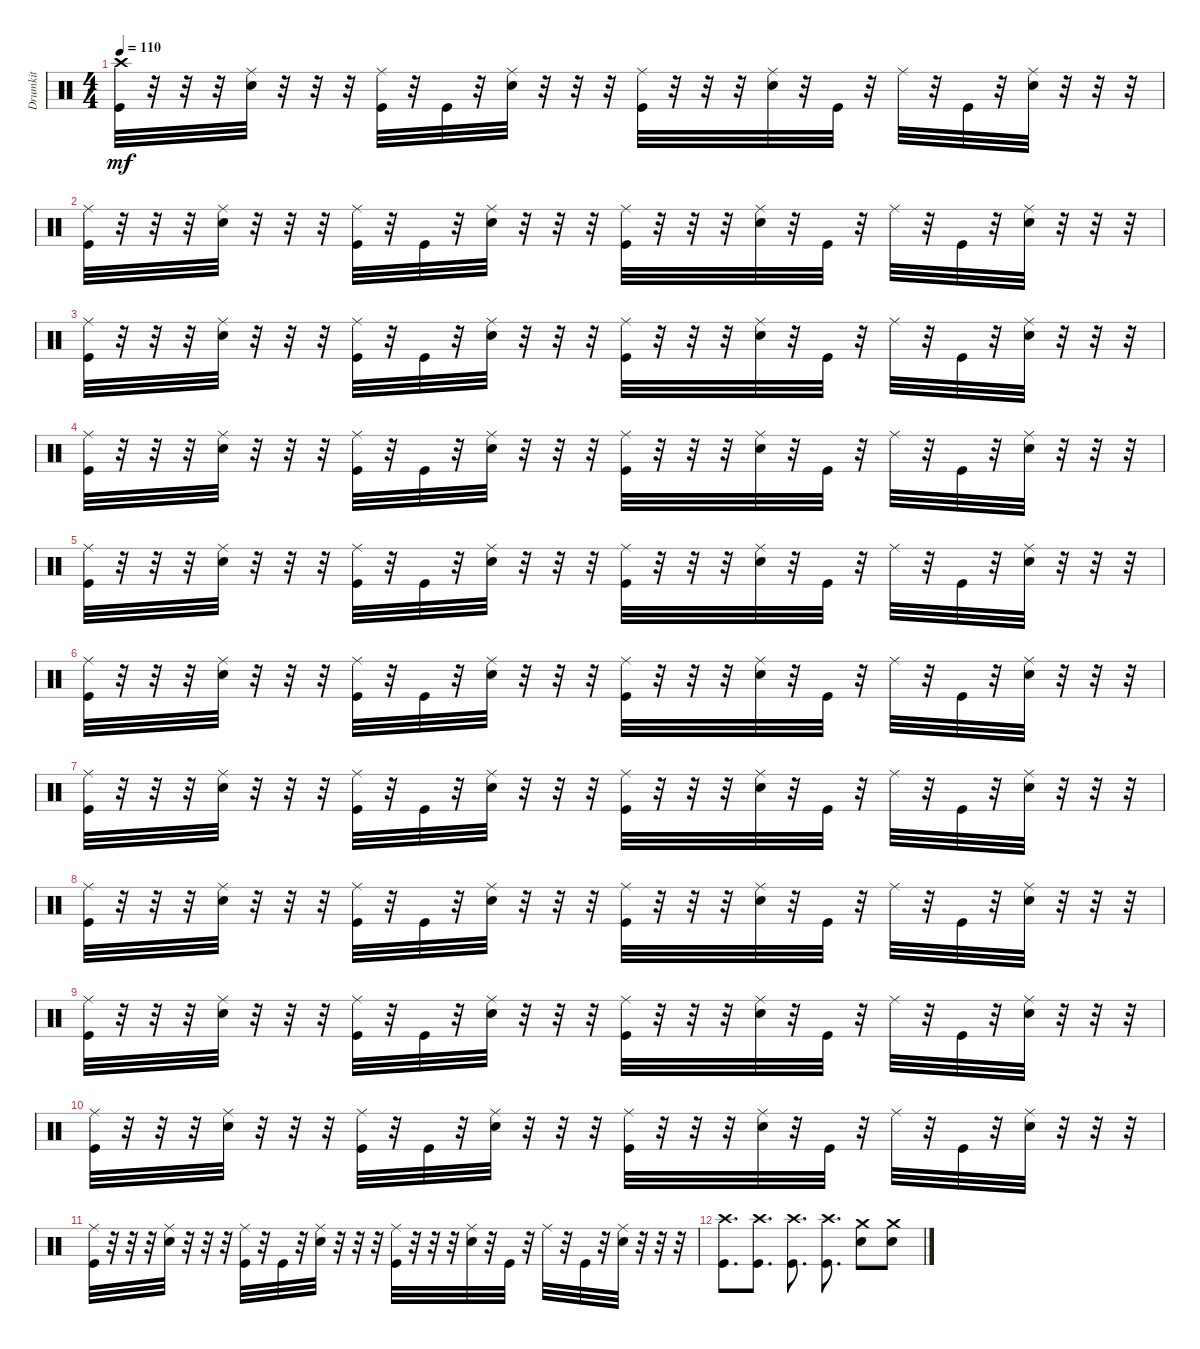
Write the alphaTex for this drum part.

\track ("Drumkit" "Drumkit") {instrument percussion}
\staff {score}
\articulation defaults
\ts (4 4)
\tempo 110
\clef neutral
\ks c
("Kick (hit)" "Crash high (hit)").32{dy mf} r.32 r.32 r.32 ("Snare (hit) 2" "Ride (middle)").32 r.32 r.32 r.32 ("Kick (hit)" "Ride (middle)").32 r.32 "Kick (hit)".32 r.32 ("Snare (hit) 2" "Ride (middle)").32 r.32 r.32 r.32 ("Kick (hit)" "Ride (middle)").32 r.32 r.32 r.32 ("Ride (middle)" "Snare (hit) 2").32 r.32 "Kick (hit)".32 r.32 "Ride (middle)".32 r.32 "Kick (hit)".32 r.32 ("Ride (middle)" "Snare (hit) 2").32 r.32 r.32 r.32 |
("Kick (hit)" "Ride (middle)").32 r.32 r.32 r.32 ("Snare (hit) 2" "Ride (middle)").32 r.32 r.32 r.32 ("Kick (hit)" "Ride (middle)").32 r.32 "Kick (hit)".32 r.32 ("Snare (hit) 2" "Ride (middle)").32 r.32 r.32 r.32 ("Kick (hit)" "Ride (middle)").32 r.32 r.32 r.32 ("Ride (middle)" "Snare (hit) 2").32 r.32 "Kick (hit)".32 r.32 "Ride (middle)".32 r.32 "Kick (hit)".32 r.32 ("Ride (middle)" "Snare (hit) 2").32 r.32 r.32 r.32 |
("Kick (hit)" "Ride (middle)").32 r.32 r.32 r.32 ("Snare (hit) 2" "Ride (middle)").32 r.32 r.32 r.32 ("Kick (hit)" "Ride (middle)").32 r.32 "Kick (hit)".32 r.32 ("Snare (hit) 2" "Ride (middle)").32 r.32 r.32 r.32 ("Kick (hit)" "Ride (middle)").32 r.32 r.32 r.32 ("Ride (middle)" "Snare (hit) 2").32 r.32 "Kick (hit)".32 r.32 "Ride (middle)".32 r.32 "Kick (hit)".32 r.32 ("Ride (middle)" "Snare (hit) 2").32 r.32 r.32 r.32 |
("Kick (hit)" "Ride (middle)").32 r.32 r.32 r.32 ("Snare (hit) 2" "Ride (middle)").32 r.32 r.32 r.32 ("Kick (hit)" "Ride (middle)").32 r.32 "Kick (hit)".32 r.32 ("Snare (hit) 2" "Ride (middle)").32 r.32 r.32 r.32 ("Kick (hit)" "Ride (middle)").32 r.32 r.32 r.32 ("Ride (middle)" "Snare (hit) 2").32 r.32 "Kick (hit)".32 r.32 "Ride (middle)".32 r.32 "Kick (hit)".32 r.32 ("Ride (middle)" "Snare (hit) 2").32 r.32 r.32 r.32 |
("Kick (hit)" "Ride (middle)").32 r.32 r.32 r.32 ("Snare (hit) 2" "Ride (middle)").32 r.32 r.32 r.32 ("Kick (hit)" "Ride (middle)").32 r.32 "Kick (hit)".32 r.32 ("Snare (hit) 2" "Ride (middle)").32 r.32 r.32 r.32 ("Kick (hit)" "Ride (middle)").32 r.32 r.32 r.32 ("Ride (middle)" "Snare (hit) 2").32 r.32 "Kick (hit)".32 r.32 "Ride (middle)".32 r.32 "Kick (hit)".32 r.32 ("Ride (middle)" "Snare (hit) 2").32 r.32 r.32 r.32 |
("Kick (hit)" "Ride (middle)").32 r.32 r.32 r.32 ("Snare (hit) 2" "Ride (middle)").32 r.32 r.32 r.32 ("Kick (hit)" "Ride (middle)").32 r.32 "Kick (hit)".32 r.32 ("Snare (hit) 2" "Ride (middle)").32 r.32 r.32 r.32 ("Kick (hit)" "Ride (middle)").32 r.32 r.32 r.32 ("Ride (middle)" "Snare (hit) 2").32 r.32 "Kick (hit)".32 r.32 "Ride (middle)".32 r.32 "Kick (hit)".32 r.32 ("Ride (middle)" "Snare (hit) 2").32 r.32 r.32 r.32 |
("Kick (hit)" "Ride (middle)").32 r.32 r.32 r.32 ("Snare (hit) 2" "Ride (middle)").32 r.32 r.32 r.32 ("Kick (hit)" "Ride (middle)").32 r.32 "Kick (hit)".32 r.32 ("Snare (hit) 2" "Ride (middle)").32 r.32 r.32 r.32 ("Kick (hit)" "Ride (middle)").32 r.32 r.32 r.32 ("Ride (middle)" "Snare (hit) 2").32 r.32 "Kick (hit)".32 r.32 "Ride (middle)".32 r.32 "Kick (hit)".32 r.32 ("Ride (middle)" "Snare (hit) 2").32 r.32 r.32 r.32 |
("Kick (hit)" "Ride (middle)").32 r.32 r.32 r.32 ("Snare (hit) 2" "Ride (middle)").32 r.32 r.32 r.32 ("Kick (hit)" "Ride (middle)").32 r.32 "Kick (hit)".32 r.32 ("Snare (hit) 2" "Ride (middle)").32 r.32 r.32 r.32 ("Kick (hit)" "Ride (middle)").32 r.32 r.32 r.32 ("Ride (middle)" "Snare (hit) 2").32 r.32 "Kick (hit)".32 r.32 "Ride (middle)".32 r.32 "Kick (hit)".32 r.32 ("Ride (middle)" "Snare (hit) 2").32 r.32 r.32 r.32 |
("Kick (hit)" "Ride (middle)").32 r.32 r.32 r.32 ("Snare (hit) 2" "Ride (middle)").32 r.32 r.32 r.32 ("Kick (hit)" "Ride (middle)").32 r.32 "Kick (hit)".32 r.32 ("Snare (hit) 2" "Ride (middle)").32 r.32 r.32 r.32 ("Kick (hit)" "Ride (middle)").32 r.32 r.32 r.32 ("Ride (middle)" "Snare (hit) 2").32 r.32 "Kick (hit)".32 r.32 "Ride (middle)".32 r.32 "Kick (hit)".32 r.32 ("Ride (middle)" "Snare (hit) 2").32 r.32 r.32 r.32 |
("Kick (hit)" "Ride (middle)").32 r.32 r.32 r.32 ("Snare (hit) 2" "Ride (middle)").32 r.32 r.32 r.32 ("Kick (hit)" "Ride (middle)").32 r.32 "Kick (hit)".32 r.32 ("Snare (hit) 2" "Ride (middle)").32 r.32 r.32 r.32 ("Kick (hit)" "Ride (middle)").32 r.32 r.32 r.32 ("Ride (middle)" "Snare (hit) 2").32 r.32 "Kick (hit)".32 r.32 "Ride (middle)".32 r.32 "Kick (hit)".32 r.32 ("Ride (middle)" "Snare (hit) 2").32 r.32 r.32 r.32 |
("Kick (hit)" "Ride (middle)").32 r.32 r.32 r.32 ("Snare (hit) 2" "Ride (middle)").32 r.32 r.32 r.32 ("Kick (hit)" "Ride (middle)").32 r.32 "Kick (hit)".32 r.32 ("Snare (hit) 2" "Ride (middle)").32 r.32 r.32 r.32 ("Kick (hit)" "Ride (middle)").32 r.32 r.32 r.32 ("Ride (middle)" "Snare (hit) 2").32 r.32 "Kick (hit)".32 r.32 "Ride (middle)".32 r.32 "Kick (hit)".32 r.32 ("Ride (middle)" "Snare (hit) 2").32 r.32 r.32 r.32 |
("Crash high (hit)" "Kick (hit)").8{d} ("Crash high (hit)" "Kick (hit)").8{d} ("Crash high (hit)" "Kick (hit)").8{d} ("Crash high (hit)" "Kick (hit)").8{d} ("Snare (hit) 2" "Crash medium (hit)").8 ("Snare (hit) 2" "Crash medium (hit)").8
